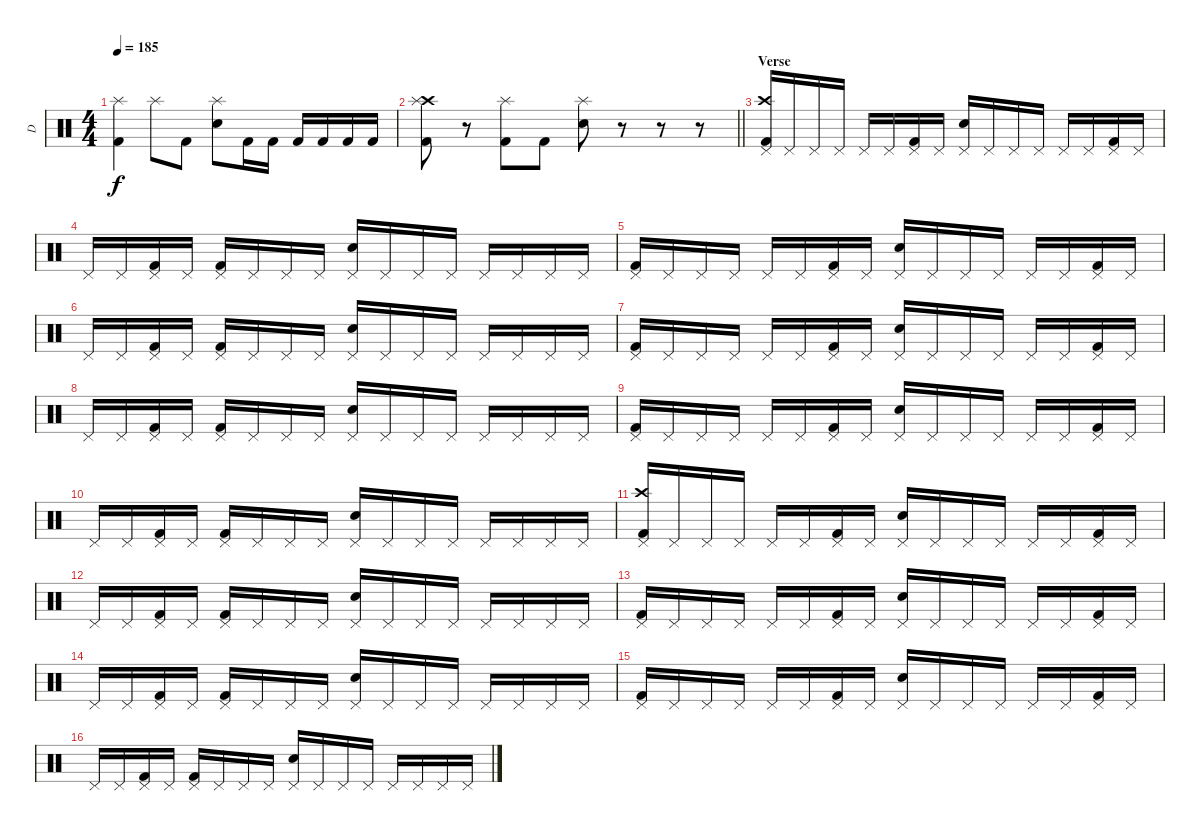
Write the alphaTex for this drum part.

\track ("D" "D") {instrument percussion}
\staff {score}
\articulation defaults
\ts (4 4)
\tempo 185
\clef neutral
\ks c
("Kick (hit) 2" "Splash (hit)").4{dy f} "Splash (hit)".8 "Kick (hit) 2".8 ("Electric Snare (hit)" "Splash (hit)").8 "Kick (hit) 2".16 "Kick (hit) 2".16 "Kick (hit) 2".16 "Kick (hit) 2".16 "Kick (hit) 2".16 "Kick (hit) 2".16 |
\barLineRight lightlight
("Crash high (hit)" "Kick (hit) 2" "Splash (hit)").8 r.8 ("Kick (hit) 2" "Splash (hit)").8 "Kick (hit) 2".8 ("Electric Snare (hit)" "Splash (hit)").8 r.8 r.8 r.8 |
\section ("" "Verse")
("Crash high (hit)" "Kick (hit) 2" "Pedal Hi-Hat (hit)").16 "Pedal Hi-Hat (hit)".16 "Pedal Hi-Hat (hit)".16 "Pedal Hi-Hat (hit)".16 "Pedal Hi-Hat (hit)".16 "Pedal Hi-Hat (hit)".16 ("Kick (hit) 2" "Pedal Hi-Hat (hit)").16 "Pedal Hi-Hat (hit)".16 ("Electric Snare (hit)" "Pedal Hi-Hat (hit)").16 "Pedal Hi-Hat (hit)".16 "Pedal Hi-Hat (hit)".16 "Pedal Hi-Hat (hit)".16 "Pedal Hi-Hat (hit)".16 "Pedal Hi-Hat (hit)".16 ("Kick (hit) 2" "Pedal Hi-Hat (hit)").16 "Pedal Hi-Hat (hit)".16 |
"Pedal Hi-Hat (hit)".16 "Pedal Hi-Hat (hit)".16 ("Kick (hit) 2" "Pedal Hi-Hat (hit)").16 "Pedal Hi-Hat (hit)".16 ("Kick (hit) 2" "Pedal Hi-Hat (hit)").16 "Pedal Hi-Hat (hit)".16 "Pedal Hi-Hat (hit)".16 "Pedal Hi-Hat (hit)".16 ("Electric Snare (hit)" "Pedal Hi-Hat (hit)").16 "Pedal Hi-Hat (hit)".16 "Pedal Hi-Hat (hit)".16 "Pedal Hi-Hat (hit)".16 "Pedal Hi-Hat (hit)".16 "Pedal Hi-Hat (hit)".16 "Pedal Hi-Hat (hit)".16 "Pedal Hi-Hat (hit)".16 |
("Kick (hit) 2" "Pedal Hi-Hat (hit)").16 "Pedal Hi-Hat (hit)".16 "Pedal Hi-Hat (hit)".16 "Pedal Hi-Hat (hit)".16 "Pedal Hi-Hat (hit)".16 "Pedal Hi-Hat (hit)".16 ("Kick (hit) 2" "Pedal Hi-Hat (hit)").16 "Pedal Hi-Hat (hit)".16 ("Electric Snare (hit)" "Pedal Hi-Hat (hit)").16 "Pedal Hi-Hat (hit)".16 "Pedal Hi-Hat (hit)".16 "Pedal Hi-Hat (hit)".16 "Pedal Hi-Hat (hit)".16 "Pedal Hi-Hat (hit)".16 ("Kick (hit) 2" "Pedal Hi-Hat (hit)").16 "Pedal Hi-Hat (hit)".16 |
"Pedal Hi-Hat (hit)".16 "Pedal Hi-Hat (hit)".16 ("Kick (hit) 2" "Pedal Hi-Hat (hit)").16 "Pedal Hi-Hat (hit)".16 ("Kick (hit) 2" "Pedal Hi-Hat (hit)").16 "Pedal Hi-Hat (hit)".16 "Pedal Hi-Hat (hit)".16 "Pedal Hi-Hat (hit)".16 ("Electric Snare (hit)" "Pedal Hi-Hat (hit)").16 "Pedal Hi-Hat (hit)".16 "Pedal Hi-Hat (hit)".16 "Pedal Hi-Hat (hit)".16 "Pedal Hi-Hat (hit)".16 "Pedal Hi-Hat (hit)".16 "Pedal Hi-Hat (hit)".16 "Pedal Hi-Hat (hit)".16 |
("Kick (hit) 2" "Pedal Hi-Hat (hit)").16 "Pedal Hi-Hat (hit)".16 "Pedal Hi-Hat (hit)".16 "Pedal Hi-Hat (hit)".16 "Pedal Hi-Hat (hit)".16 "Pedal Hi-Hat (hit)".16 ("Kick (hit) 2" "Pedal Hi-Hat (hit)").16 "Pedal Hi-Hat (hit)".16 ("Electric Snare (hit)" "Pedal Hi-Hat (hit)").16 "Pedal Hi-Hat (hit)".16 "Pedal Hi-Hat (hit)".16 "Pedal Hi-Hat (hit)".16 "Pedal Hi-Hat (hit)".16 "Pedal Hi-Hat (hit)".16 ("Kick (hit) 2" "Pedal Hi-Hat (hit)").16 "Pedal Hi-Hat (hit)".16 |
"Pedal Hi-Hat (hit)".16 "Pedal Hi-Hat (hit)".16 ("Kick (hit) 2" "Pedal Hi-Hat (hit)").16 "Pedal Hi-Hat (hit)".16 ("Kick (hit) 2" "Pedal Hi-Hat (hit)").16 "Pedal Hi-Hat (hit)".16 "Pedal Hi-Hat (hit)".16 "Pedal Hi-Hat (hit)".16 ("Electric Snare (hit)" "Pedal Hi-Hat (hit)").16 "Pedal Hi-Hat (hit)".16 "Pedal Hi-Hat (hit)".16 "Pedal Hi-Hat (hit)".16 "Pedal Hi-Hat (hit)".16 "Pedal Hi-Hat (hit)".16 "Pedal Hi-Hat (hit)".16 "Pedal Hi-Hat (hit)".16 |
("Kick (hit) 2" "Pedal Hi-Hat (hit)").16 "Pedal Hi-Hat (hit)".16 "Pedal Hi-Hat (hit)".16 "Pedal Hi-Hat (hit)".16 "Pedal Hi-Hat (hit)".16 "Pedal Hi-Hat (hit)".16 ("Kick (hit) 2" "Pedal Hi-Hat (hit)").16 "Pedal Hi-Hat (hit)".16 ("Electric Snare (hit)" "Pedal Hi-Hat (hit)").16 "Pedal Hi-Hat (hit)".16 "Pedal Hi-Hat (hit)".16 "Pedal Hi-Hat (hit)".16 "Pedal Hi-Hat (hit)".16 "Pedal Hi-Hat (hit)".16 ("Kick (hit) 2" "Pedal Hi-Hat (hit)").16 "Pedal Hi-Hat (hit)".16 |
"Pedal Hi-Hat (hit)".16 "Pedal Hi-Hat (hit)".16 ("Kick (hit) 2" "Pedal Hi-Hat (hit)").16 "Pedal Hi-Hat (hit)".16 ("Kick (hit) 2" "Pedal Hi-Hat (hit)").16 "Pedal Hi-Hat (hit)".16 "Pedal Hi-Hat (hit)".16 "Pedal Hi-Hat (hit)".16 ("Electric Snare (hit)" "Pedal Hi-Hat (hit)").16 "Pedal Hi-Hat (hit)".16 "Pedal Hi-Hat (hit)".16 "Pedal Hi-Hat (hit)".16 "Pedal Hi-Hat (hit)".16 "Pedal Hi-Hat (hit)".16 "Pedal Hi-Hat (hit)".16 "Pedal Hi-Hat (hit)".16 |
("Crash high (hit)" "Kick (hit) 2" "Pedal Hi-Hat (hit)").16 "Pedal Hi-Hat (hit)".16 "Pedal Hi-Hat (hit)".16 "Pedal Hi-Hat (hit)".16 "Pedal Hi-Hat (hit)".16 "Pedal Hi-Hat (hit)".16 ("Kick (hit) 2" "Pedal Hi-Hat (hit)").16 "Pedal Hi-Hat (hit)".16 ("Electric Snare (hit)" "Pedal Hi-Hat (hit)").16 "Pedal Hi-Hat (hit)".16 "Pedal Hi-Hat (hit)".16 "Pedal Hi-Hat (hit)".16 "Pedal Hi-Hat (hit)".16 "Pedal Hi-Hat (hit)".16 ("Kick (hit) 2" "Pedal Hi-Hat (hit)").16 "Pedal Hi-Hat (hit)".16 |
"Pedal Hi-Hat (hit)".16 "Pedal Hi-Hat (hit)".16 ("Kick (hit) 2" "Pedal Hi-Hat (hit)").16 "Pedal Hi-Hat (hit)".16 ("Kick (hit) 2" "Pedal Hi-Hat (hit)").16 "Pedal Hi-Hat (hit)".16 "Pedal Hi-Hat (hit)".16 "Pedal Hi-Hat (hit)".16 ("Electric Snare (hit)" "Pedal Hi-Hat (hit)").16 "Pedal Hi-Hat (hit)".16 "Pedal Hi-Hat (hit)".16 "Pedal Hi-Hat (hit)".16 "Pedal Hi-Hat (hit)".16 "Pedal Hi-Hat (hit)".16 "Pedal Hi-Hat (hit)".16 "Pedal Hi-Hat (hit)".16 |
("Kick (hit) 2" "Pedal Hi-Hat (hit)").16 "Pedal Hi-Hat (hit)".16 "Pedal Hi-Hat (hit)".16 "Pedal Hi-Hat (hit)".16 "Pedal Hi-Hat (hit)".16 "Pedal Hi-Hat (hit)".16 ("Kick (hit) 2" "Pedal Hi-Hat (hit)").16 "Pedal Hi-Hat (hit)".16 ("Electric Snare (hit)" "Pedal Hi-Hat (hit)").16 "Pedal Hi-Hat (hit)".16 "Pedal Hi-Hat (hit)".16 "Pedal Hi-Hat (hit)".16 "Pedal Hi-Hat (hit)".16 "Pedal Hi-Hat (hit)".16 ("Kick (hit) 2" "Pedal Hi-Hat (hit)").16 "Pedal Hi-Hat (hit)".16 |
"Pedal Hi-Hat (hit)".16 "Pedal Hi-Hat (hit)".16 ("Kick (hit) 2" "Pedal Hi-Hat (hit)").16 "Pedal Hi-Hat (hit)".16 ("Kick (hit) 2" "Pedal Hi-Hat (hit)").16 "Pedal Hi-Hat (hit)".16 "Pedal Hi-Hat (hit)".16 "Pedal Hi-Hat (hit)".16 ("Electric Snare (hit)" "Pedal Hi-Hat (hit)").16 "Pedal Hi-Hat (hit)".16 "Pedal Hi-Hat (hit)".16 "Pedal Hi-Hat (hit)".16 "Pedal Hi-Hat (hit)".16 "Pedal Hi-Hat (hit)".16 "Pedal Hi-Hat (hit)".16 "Pedal Hi-Hat (hit)".16 |
("Kick (hit) 2" "Pedal Hi-Hat (hit)").16 "Pedal Hi-Hat (hit)".16 "Pedal Hi-Hat (hit)".16 "Pedal Hi-Hat (hit)".16 "Pedal Hi-Hat (hit)".16 "Pedal Hi-Hat (hit)".16 ("Kick (hit) 2" "Pedal Hi-Hat (hit)").16 "Pedal Hi-Hat (hit)".16 ("Electric Snare (hit)" "Pedal Hi-Hat (hit)").16 "Pedal Hi-Hat (hit)".16 "Pedal Hi-Hat (hit)".16 "Pedal Hi-Hat (hit)".16 "Pedal Hi-Hat (hit)".16 "Pedal Hi-Hat (hit)".16 ("Kick (hit) 2" "Pedal Hi-Hat (hit)").16 "Pedal Hi-Hat (hit)".16 |
"Pedal Hi-Hat (hit)".16 "Pedal Hi-Hat (hit)".16 ("Kick (hit) 2" "Pedal Hi-Hat (hit)").16 "Pedal Hi-Hat (hit)".16 ("Kick (hit) 2" "Pedal Hi-Hat (hit)").16 "Pedal Hi-Hat (hit)".16 "Pedal Hi-Hat (hit)".16 "Pedal Hi-Hat (hit)".16 ("Electric Snare (hit)" "Pedal Hi-Hat (hit)").16 "Pedal Hi-Hat (hit)".16 "Pedal Hi-Hat (hit)".16 "Pedal Hi-Hat (hit)".16 "Pedal Hi-Hat (hit)".16 "Pedal Hi-Hat (hit)".16 "Pedal Hi-Hat (hit)".16 "Pedal Hi-Hat (hit)".16
